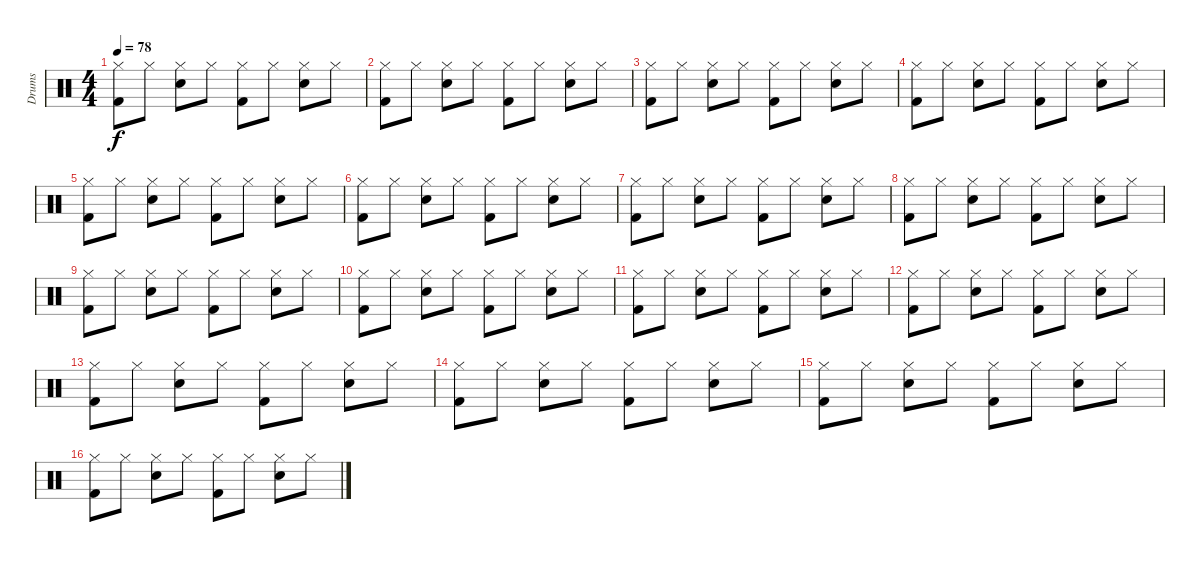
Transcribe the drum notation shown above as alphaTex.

\track ("Drums" "Drums") {instrument percussion}
\staff {score}
\articulation defaults
\ts (4 4)
\tempo 78
\clef neutral
\ks c
("Hi-Hat (closed)" "Kick (hit) 2").8{dy f} "Hi-Hat (closed)".8 ("Hi-Hat (closed)" "Electric Snare (hit)").8 "Hi-Hat (closed)".8 ("Hi-Hat (closed)" "Kick (hit) 2").8 "Hi-Hat (closed)".8 ("Hi-Hat (closed)" "Electric Snare (hit)").8 "Hi-Hat (closed)".8 |
("Hi-Hat (closed)" "Kick (hit) 2").8 "Hi-Hat (closed)".8 ("Hi-Hat (closed)" "Electric Snare (hit)").8 "Hi-Hat (closed)".8 ("Hi-Hat (closed)" "Kick (hit) 2").8 "Hi-Hat (closed)".8 ("Hi-Hat (closed)" "Electric Snare (hit)").8 "Hi-Hat (closed)".8 |
("Hi-Hat (closed)" "Kick (hit) 2").8 "Hi-Hat (closed)".8 ("Hi-Hat (closed)" "Electric Snare (hit)").8 "Hi-Hat (closed)".8 ("Hi-Hat (closed)" "Kick (hit) 2").8 "Hi-Hat (closed)".8 ("Hi-Hat (closed)" "Electric Snare (hit)").8 "Hi-Hat (closed)".8 |
("Hi-Hat (closed)" "Kick (hit) 2").8 "Hi-Hat (closed)".8 ("Hi-Hat (closed)" "Electric Snare (hit)").8 "Hi-Hat (closed)".8 ("Hi-Hat (closed)" "Kick (hit) 2").8 "Hi-Hat (closed)".8 ("Hi-Hat (closed)" "Electric Snare (hit)").8 "Hi-Hat (closed)".8 |
("Hi-Hat (closed)" "Kick (hit) 2").8 "Hi-Hat (closed)".8 ("Hi-Hat (closed)" "Electric Snare (hit)").8 "Hi-Hat (closed)".8 ("Hi-Hat (closed)" "Kick (hit) 2").8 "Hi-Hat (closed)".8 ("Hi-Hat (closed)" "Electric Snare (hit)").8 "Hi-Hat (closed)".8 |
("Hi-Hat (closed)" "Kick (hit) 2").8 "Hi-Hat (closed)".8 ("Hi-Hat (closed)" "Electric Snare (hit)").8 "Hi-Hat (closed)".8 ("Hi-Hat (closed)" "Kick (hit) 2").8 "Hi-Hat (closed)".8 ("Hi-Hat (closed)" "Electric Snare (hit)").8 "Hi-Hat (closed)".8 |
("Hi-Hat (closed)" "Kick (hit) 2").8 "Hi-Hat (closed)".8 ("Hi-Hat (closed)" "Electric Snare (hit)").8 "Hi-Hat (closed)".8 ("Hi-Hat (closed)" "Kick (hit) 2").8 "Hi-Hat (closed)".8 ("Hi-Hat (closed)" "Electric Snare (hit)").8 "Hi-Hat (closed)".8 |
("Hi-Hat (closed)" "Kick (hit) 2").8 "Hi-Hat (closed)".8 ("Hi-Hat (closed)" "Electric Snare (hit)").8 "Hi-Hat (closed)".8 ("Hi-Hat (closed)" "Kick (hit) 2").8 "Hi-Hat (closed)".8 ("Hi-Hat (closed)" "Electric Snare (hit)").8 "Hi-Hat (closed)".8 |
("Hi-Hat (closed)" "Kick (hit) 2").8 "Hi-Hat (closed)".8 ("Hi-Hat (closed)" "Electric Snare (hit)").8 "Hi-Hat (closed)".8 ("Hi-Hat (closed)" "Kick (hit) 2").8 "Hi-Hat (closed)".8 ("Hi-Hat (closed)" "Electric Snare (hit)").8 "Hi-Hat (closed)".8 |
("Hi-Hat (closed)" "Kick (hit) 2").8 "Hi-Hat (closed)".8 ("Hi-Hat (closed)" "Electric Snare (hit)").8 "Hi-Hat (closed)".8 ("Hi-Hat (closed)" "Kick (hit) 2").8 "Hi-Hat (closed)".8 ("Hi-Hat (closed)" "Electric Snare (hit)").8 "Hi-Hat (closed)".8 |
("Hi-Hat (closed)" "Kick (hit) 2").8 "Hi-Hat (closed)".8 ("Hi-Hat (closed)" "Electric Snare (hit)").8 "Hi-Hat (closed)".8 ("Hi-Hat (closed)" "Kick (hit) 2").8 "Hi-Hat (closed)".8 ("Hi-Hat (closed)" "Electric Snare (hit)").8 "Hi-Hat (closed)".8 |
("Hi-Hat (closed)" "Kick (hit) 2").8 "Hi-Hat (closed)".8 ("Hi-Hat (closed)" "Electric Snare (hit)").8 "Hi-Hat (closed)".8 ("Hi-Hat (closed)" "Kick (hit) 2").8 "Hi-Hat (closed)".8 ("Hi-Hat (closed)" "Electric Snare (hit)").8 "Hi-Hat (closed)".8 |
("Hi-Hat (closed)" "Kick (hit) 2").8 "Hi-Hat (closed)".8 ("Hi-Hat (closed)" "Electric Snare (hit)").8 "Hi-Hat (closed)".8 ("Hi-Hat (closed)" "Kick (hit) 2").8 "Hi-Hat (closed)".8 ("Hi-Hat (closed)" "Electric Snare (hit)").8 "Hi-Hat (closed)".8 |
("Hi-Hat (closed)" "Kick (hit) 2").8 "Hi-Hat (closed)".8 ("Hi-Hat (closed)" "Electric Snare (hit)").8 "Hi-Hat (closed)".8 ("Hi-Hat (closed)" "Kick (hit) 2").8 "Hi-Hat (closed)".8 ("Hi-Hat (closed)" "Electric Snare (hit)").8 "Hi-Hat (closed)".8 |
("Hi-Hat (closed)" "Kick (hit) 2").8 "Hi-Hat (closed)".8 ("Hi-Hat (closed)" "Electric Snare (hit)").8 "Hi-Hat (closed)".8 ("Hi-Hat (closed)" "Kick (hit) 2").8 "Hi-Hat (closed)".8 ("Hi-Hat (closed)" "Electric Snare (hit)").8 "Hi-Hat (closed)".8 |
("Hi-Hat (closed)" "Kick (hit) 2").8 "Hi-Hat (closed)".8 ("Hi-Hat (closed)" "Electric Snare (hit)").8 "Hi-Hat (closed)".8 ("Hi-Hat (closed)" "Kick (hit) 2").8 "Hi-Hat (closed)".8 ("Hi-Hat (closed)" "Electric Snare (hit)").8 "Hi-Hat (closed)".8
